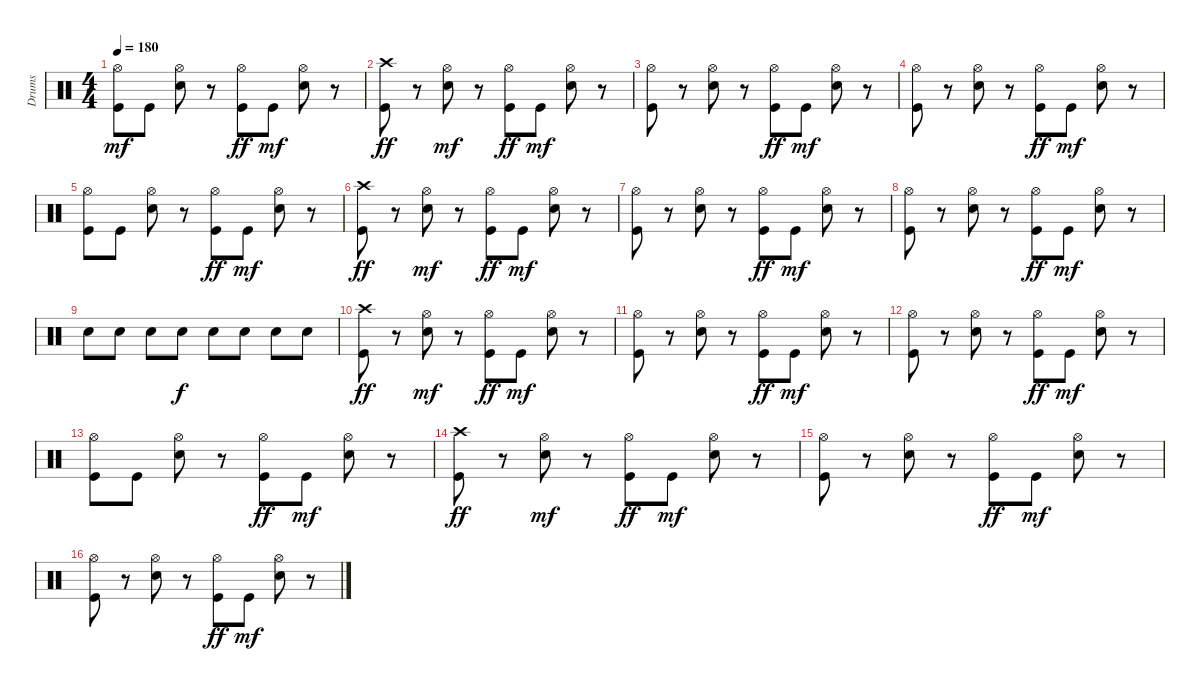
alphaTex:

\track ("Drums" "Drums") {instrument percussion}
\staff {score}
\articulation defaults
\ts (4 4)
\tempo 180
\clef neutral
\ks c
("Kick (hit)" "Hi-Hat (open)").8{dy mf} "Kick (hit)".8 ("Hi-Hat (open)" "Snare (hit) 2").8 r.8 ("Hi-Hat (open)" "Kick (hit)").8{dy ff} "Kick (hit)".8{dy mf} ("Hi-Hat (open)" "Snare (hit) 2").8 r.8 |
("Crash high (hit)" "Kick (hit)").8{dy ff} r.8 ("Hi-Hat (open)" "Snare (hit) 2").8{dy mf} r.8 ("Hi-Hat (open)" "Kick (hit)").8{dy ff} "Kick (hit)".8{dy mf} ("Hi-Hat (open)" "Snare (hit) 2").8 r.8 |
("Kick (hit)" "Hi-Hat (open)").8 r.8 ("Hi-Hat (open)" "Snare (hit) 2").8 r.8 ("Hi-Hat (open)" "Kick (hit)").8{dy ff} "Kick (hit)".8{dy mf} ("Snare (hit) 2" "Hi-Hat (open)").8 r.8 |
("Kick (hit)" "Hi-Hat (open)").8 r.8 ("Hi-Hat (open)" "Snare (hit) 2").8 r.8 ("Hi-Hat (open)" "Kick (hit)").8{dy ff} "Kick (hit)".8{dy mf} ("Snare (hit) 2" "Hi-Hat (open)").8 r.8 |
("Kick (hit)" "Hi-Hat (open)").8 "Kick (hit)".8 ("Hi-Hat (open)" "Snare (hit) 2").8 r.8 ("Hi-Hat (open)" "Kick (hit)").8{dy ff} "Kick (hit)".8{dy mf} ("Hi-Hat (open)" "Snare (hit) 2").8 r.8 |
("Crash high (hit)" "Kick (hit)").8{dy ff} r.8 ("Hi-Hat (open)" "Snare (hit) 2").8{dy mf} r.8 ("Hi-Hat (open)" "Kick (hit)").8{dy ff} "Kick (hit)".8{dy mf} ("Hi-Hat (open)" "Snare (hit) 2").8 r.8 |
("Kick (hit)" "Hi-Hat (open)").8 r.8 ("Hi-Hat (open)" "Snare (hit) 2").8 r.8 ("Hi-Hat (open)" "Kick (hit)").8{dy ff} "Kick (hit)".8{dy mf} ("Snare (hit) 2" "Hi-Hat (open)").8 r.8 |
("Kick (hit)" "Hi-Hat (open)").8 r.8 ("Hi-Hat (open)" "Snare (hit) 2").8 r.8 ("Hi-Hat (open)" "Kick (hit)").8{dy ff} "Kick (hit)".8{dy mf} ("Snare (hit) 2" "Hi-Hat (open)").8 r.8 |
"Snare (hit) 2".8 "Snare (hit) 2".8 "Snare (hit) 2".8 "Snare (hit) 2".8{dy f} "Snare (hit) 2".8 "Snare (hit) 2".8 "Snare (hit) 2".8 "Snare (hit) 2".8 |
("Crash high (hit)" "Kick (hit)").8{dy ff} r.8 ("Hi-Hat (open)" "Snare (hit) 2").8{dy mf} r.8 ("Hi-Hat (open)" "Kick (hit)").8{dy ff} "Kick (hit)".8{dy mf} ("Hi-Hat (open)" "Snare (hit) 2").8 r.8 |
("Kick (hit)" "Hi-Hat (open)").8 r.8 ("Hi-Hat (open)" "Snare (hit) 2").8 r.8 ("Hi-Hat (open)" "Kick (hit)").8{dy ff} "Kick (hit)".8{dy mf} ("Snare (hit) 2" "Hi-Hat (open)").8 r.8 |
("Kick (hit)" "Hi-Hat (open)").8 r.8 ("Hi-Hat (open)" "Snare (hit) 2").8 r.8 ("Hi-Hat (open)" "Kick (hit)").8{dy ff} "Kick (hit)".8{dy mf} ("Snare (hit) 2" "Hi-Hat (open)").8 r.8 |
("Kick (hit)" "Hi-Hat (open)").8 "Kick (hit)".8 ("Hi-Hat (open)" "Snare (hit) 2").8 r.8 ("Hi-Hat (open)" "Kick (hit)").8{dy ff} "Kick (hit)".8{dy mf} ("Hi-Hat (open)" "Snare (hit) 2").8 r.8 |
("Crash high (hit)" "Kick (hit)").8{dy ff} r.8 ("Hi-Hat (open)" "Snare (hit) 2").8{dy mf} r.8 ("Hi-Hat (open)" "Kick (hit)").8{dy ff} "Kick (hit)".8{dy mf} ("Hi-Hat (open)" "Snare (hit) 2").8 r.8 |
("Kick (hit)" "Hi-Hat (open)").8 r.8 ("Hi-Hat (open)" "Snare (hit) 2").8 r.8 ("Hi-Hat (open)" "Kick (hit)").8{dy ff} "Kick (hit)".8{dy mf} ("Snare (hit) 2" "Hi-Hat (open)").8 r.8 |
("Kick (hit)" "Hi-Hat (open)").8 r.8 ("Hi-Hat (open)" "Snare (hit) 2").8 r.8 ("Hi-Hat (open)" "Kick (hit)").8{dy ff} "Kick (hit)".8{dy mf} ("Snare (hit) 2" "Hi-Hat (open)").8 r.8
